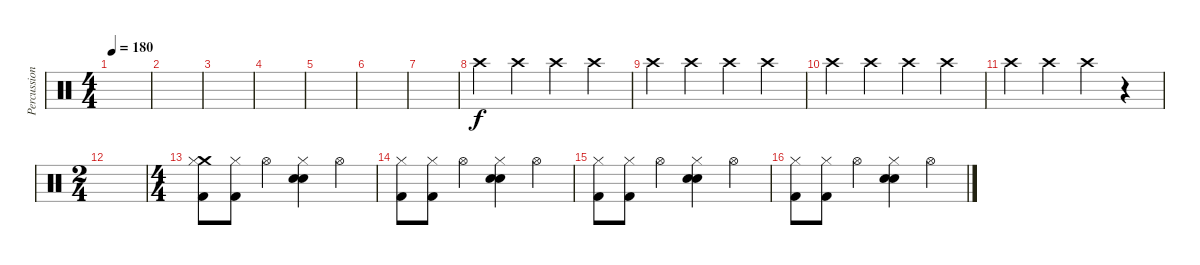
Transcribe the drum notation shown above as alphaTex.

\track ("Percussions" "Percussion") {instrument percussion}
\staff {score}
\articulation defaults
\ts (4 4)
\tempo 180
\clef neutral
\ks c
|
|
|
|
|
|
|
"Crash high (hit)".4 "Crash high (hit)".4 "Crash high (hit)".4 "Crash high (hit)".4 |
"Crash high (hit)".4 "Crash high (hit)".4 "Crash high (hit)".4 "Crash high (hit)".4 |
"Crash high (hit)".4 "Crash high (hit)".4 "Crash high (hit)".4 "Crash high (hit)".4 |
"Crash high (hit)".4 "Crash high (hit)".4 "Crash high (hit)".4 r.4 |
\ts (2 4)
|
\ts (4 4)
("Crash medium (hit)" "Hi-Hat (closed)" "Kick (hit) 2").8 ("Hi-Hat (closed)" "Kick (hit) 2").8 "Hi-Hat (open)".4 ("Electric Snare (hit)" "Hi-Hat (closed)" "Snare (hit) 2").4 "Hi-Hat (open)".4 |
("Hi-Hat (closed)" "Kick (hit) 2").8 ("Hi-Hat (closed)" "Kick (hit) 2").8 "Hi-Hat (open)".4 ("Electric Snare (hit)" "Hi-Hat (closed)" "Snare (hit) 2").4 "Hi-Hat (open)".4 |
("Hi-Hat (closed)" "Kick (hit) 2").8 ("Hi-Hat (closed)" "Kick (hit) 2").8 "Hi-Hat (open)".4 ("Electric Snare (hit)" "Hi-Hat (closed)" "Snare (hit) 2").4 "Hi-Hat (open)".4 |
("Hi-Hat (closed)" "Kick (hit) 2").8 ("Hi-Hat (closed)" "Kick (hit) 2").8 "Hi-Hat (open)".4 ("Electric Snare (hit)" "Hi-Hat (closed)" "Snare (hit) 2").4 "Hi-Hat (open)".4
